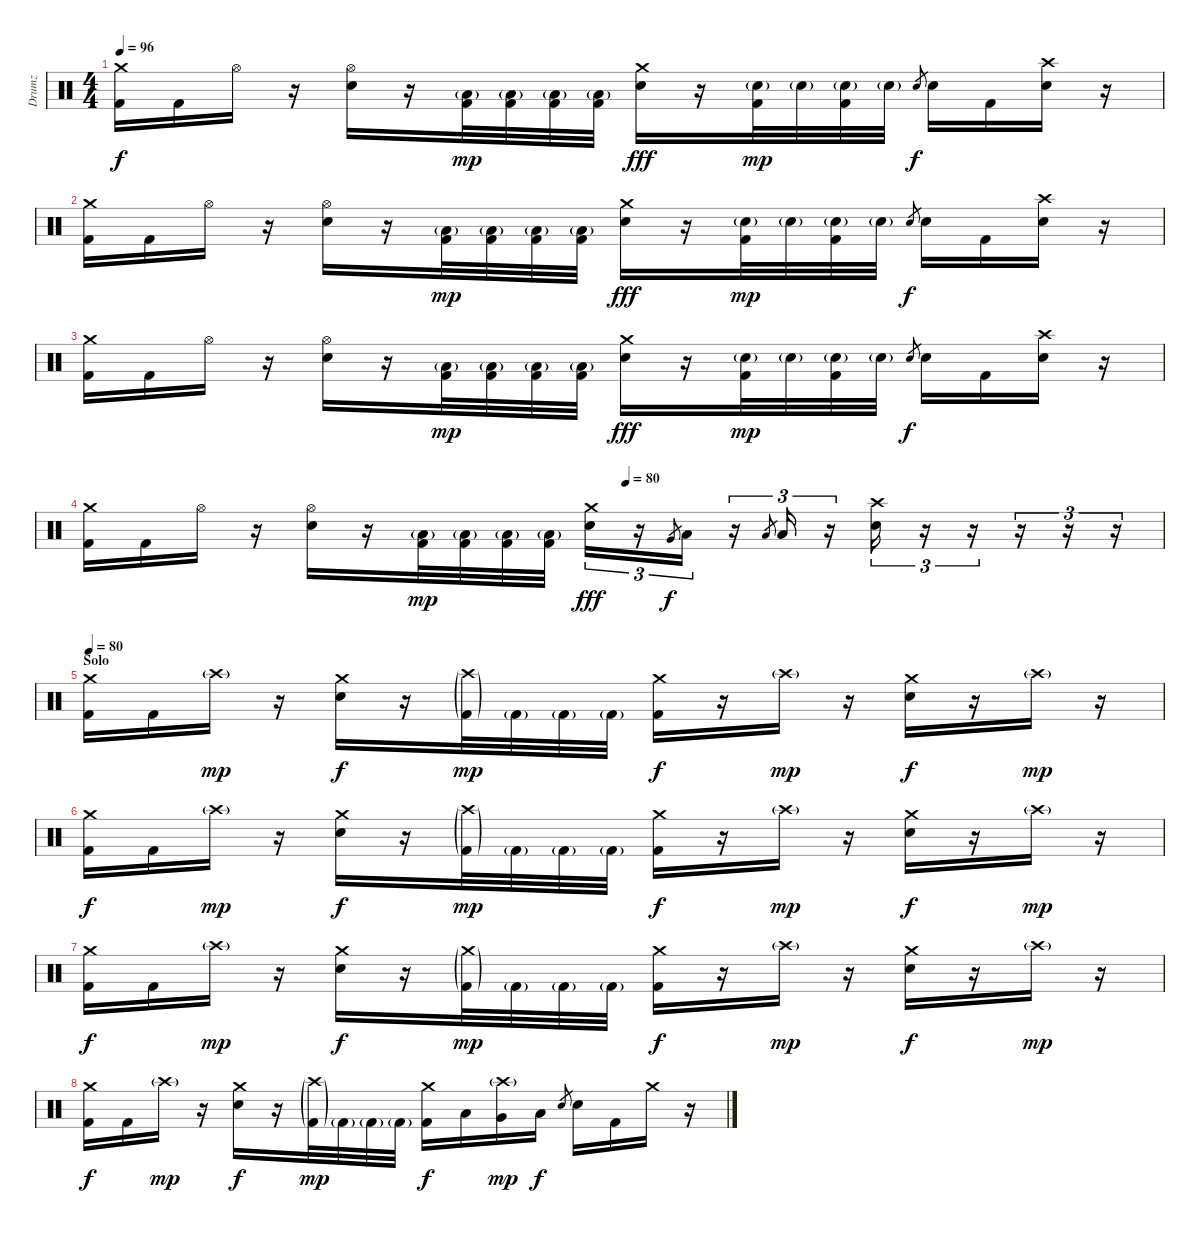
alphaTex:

\track ("Drumz" "Drumz") {instrument percussion}
\staff {score}
\articulation defaults
\ts (4 4)
\tempo 96
\clef neutral
\ks c
("Crash medium (hit)" "Kick (hit) 2").16{dy f} "Kick (hit) 2".16 "Hi-Hat (open)".16 r.16 ("Hi-Hat (open)" "Electric Snare (hit)").16 r.16 ("Low Floor Tom (hit)"{g} "Kick (hit) 2").32{dy mp} ("Low Floor Tom (hit)"{g} "Kick (hit) 2").32 ("Low Floor Tom (hit)"{g} "Kick (hit) 2").32 ("Low Floor Tom (hit)"{g} "Kick (hit) 2").32 ("Crash medium (hit)" "Electric Snare (hit)").16{dy fff} r.16 ("Electric Snare (hit)"{g} "Kick (hit) 2").32{dy mp} "Electric Snare (hit)"{g}.32 ("Electric Snare (hit)"{g} "Kick (hit) 2").32 "Electric Snare (hit)"{g}.32 "Electric Snare (hit)".8{gr dy f} "Electric Snare (hit)".16 "Kick (hit) 2".16 ("Crash high (hit)" "Electric Snare (hit)").16 r.16 |
("Crash medium (hit)" "Kick (hit) 2").16 "Kick (hit) 2".16 "Hi-Hat (open)".16 r.16 ("Hi-Hat (open)" "Electric Snare (hit)").16 r.16 ("Low Floor Tom (hit)"{g} "Kick (hit) 2").32{dy mp} ("Low Floor Tom (hit)"{g} "Kick (hit) 2").32 ("Low Floor Tom (hit)"{g} "Kick (hit) 2").32 ("Low Floor Tom (hit)"{g} "Kick (hit) 2").32 ("Crash medium (hit)" "Electric Snare (hit)").16{dy fff} r.16 ("Electric Snare (hit)"{g} "Kick (hit) 2").32{dy mp} "Electric Snare (hit)"{g}.32 ("Electric Snare (hit)"{g} "Kick (hit) 2").32 "Electric Snare (hit)"{g}.32 "Electric Snare (hit)".8{gr dy f} "Electric Snare (hit)".16 "Kick (hit) 2".16 ("Crash high (hit)" "Electric Snare (hit)").16 r.16 |
("Crash medium (hit)" "Kick (hit) 2").16 "Kick (hit) 2".16 "Hi-Hat (open)".16 r.16 ("Hi-Hat (open)" "Electric Snare (hit)").16 r.16 ("Low Floor Tom (hit)"{g} "Kick (hit) 2").32{dy mp} ("Low Floor Tom (hit)"{g} "Kick (hit) 2").32 ("Low Floor Tom (hit)"{g} "Kick (hit) 2").32 ("Low Floor Tom (hit)"{g} "Kick (hit) 2").32 ("Crash medium (hit)" "Electric Snare (hit)").16{dy fff} r.16 ("Electric Snare (hit)"{g} "Kick (hit) 2").32{dy mp} "Electric Snare (hit)"{g}.32 ("Electric Snare (hit)"{g} "Kick (hit) 2").32 "Electric Snare (hit)"{g}.32 "Electric Snare (hit)".8{gr dy f} "Electric Snare (hit)".16 "Kick (hit) 2".16 ("Crash high (hit)" "Electric Snare (hit)").16 r.16 |
\tempo (80 0.5)
("Crash medium (hit)" "Kick (hit) 2").16 "Kick (hit) 2".16 "Hi-Hat (open)".16 r.16 ("Hi-Hat (open)" "Electric Snare (hit)").16 r.16 ("Low Floor Tom (hit)"{g} "Kick (hit) 2").32{dy mp} ("Low Floor Tom (hit)"{g} "Kick (hit) 2").32 ("Low Floor Tom (hit)"{g} "Kick (hit) 2").32 ("Low Floor Tom (hit)"{g} "Kick (hit) 2").32 ("Crash medium (hit)" "Electric Snare (hit)").16{tu (3 2) dy fff} r.16{tu (3 2)} "Very Low Tom (hit)".8{gr dy f} "Low Tom (hit)".16{tu (3 2)} r.16{tu (3 2)} "Low Floor Tom (hit)".8{gr} "Low Floor Tom (hit)".16{tu (3 2)} r.16{tu (3 2)} ("Crash high (hit)" "Electric Snare (hit)").16{tu (3 2)} r.16{tu (3 2)} r.16{tu (3 2)} r.16{tu (3 2)} r.16{tu (3 2)} r.16{tu (3 2)} |
\section ("" "Solo")
\tempo 80
("Crash medium (hit)" "Kick (hit) 2").16 "Kick (hit) 2".16 "Crash high (hit)"{g}.16{dy mp} r.16 ("Crash medium (hit)" "Electric Snare (hit)").16{dy f} r.16 ("Crash high (hit)"{g} "Kick (hit) 2"{g}).32{dy mp} "Kick (hit) 2"{g}.32 "Kick (hit) 2"{g}.32 "Kick (hit) 2"{g}.32 ("Crash medium (hit)" "Kick (hit) 2").16{dy f} r.16 "Crash high (hit)"{g}.16{dy mp} r.16 ("Crash medium (hit)" "Electric Snare (hit)").16{dy f} r.16 "Crash high (hit)"{g}.16{dy mp} r.16 |
("Crash medium (hit)" "Kick (hit) 2").16{dy f} "Kick (hit) 2".16 "Crash high (hit)"{g}.16{dy mp} r.16 ("Crash medium (hit)" "Electric Snare (hit)").16{dy f} r.16 ("Crash high (hit)"{g} "Kick (hit) 2"{g}).32{dy mp} "Kick (hit) 2"{g}.32 "Kick (hit) 2"{g}.32 "Kick (hit) 2"{g}.32 ("Crash medium (hit)" "Kick (hit) 2").16{dy f} r.16 "Crash high (hit)"{g}.16{dy mp} r.16 ("Crash medium (hit)" "Electric Snare (hit)").16{dy f} r.16 "Crash high (hit)"{g}.16{dy mp} r.16 |
("Crash medium (hit)" "Kick (hit) 2").16{dy f} "Kick (hit) 2".16 "Crash high (hit)"{g}.16{dy mp} r.16 ("Crash medium (hit)" "Electric Snare (hit)").16{dy f} r.16 ("Crash medium (hit)"{g} "Kick (hit) 2"{g}).32{dy mp} "Kick (hit) 2"{g}.32 "Kick (hit) 2"{g}.32 "Kick (hit) 2"{g}.32 ("Crash medium (hit)" "Kick (hit) 2").16{dy f} r.16 "Crash high (hit)"{g}.16{dy mp} r.16 ("Crash medium (hit)" "Electric Snare (hit)").16{dy f} r.16 "Crash high (hit)"{g}.16{dy mp} r.16 |
("Crash medium (hit)" "Kick (hit) 2").16{dy f} "Kick (hit) 2".16 "Crash high (hit)"{g}.16{dy mp} r.16 ("Crash medium (hit)" "Electric Snare (hit)").16{dy f} r.16 ("Crash high (hit)"{g} "Kick (hit) 2"{g}).32{dy mp} "Kick (hit) 2"{g}.32 "Kick (hit) 2"{g}.32 "Kick (hit) 2"{g}.32 ("Crash medium (hit)" "Kick (hit) 2").16{dy f} "Low Floor Tom (hit)".16 ("Crash high (hit)"{g} "Very Low Tom (hit)").16{dy mp} "Low Floor Tom (hit)".16{dy f} "Electric Snare (hit)".8{gr} "Electric Snare (hit)".16 "Kick (hit) 2".16 "Crash medium (hit)".16 r.16
